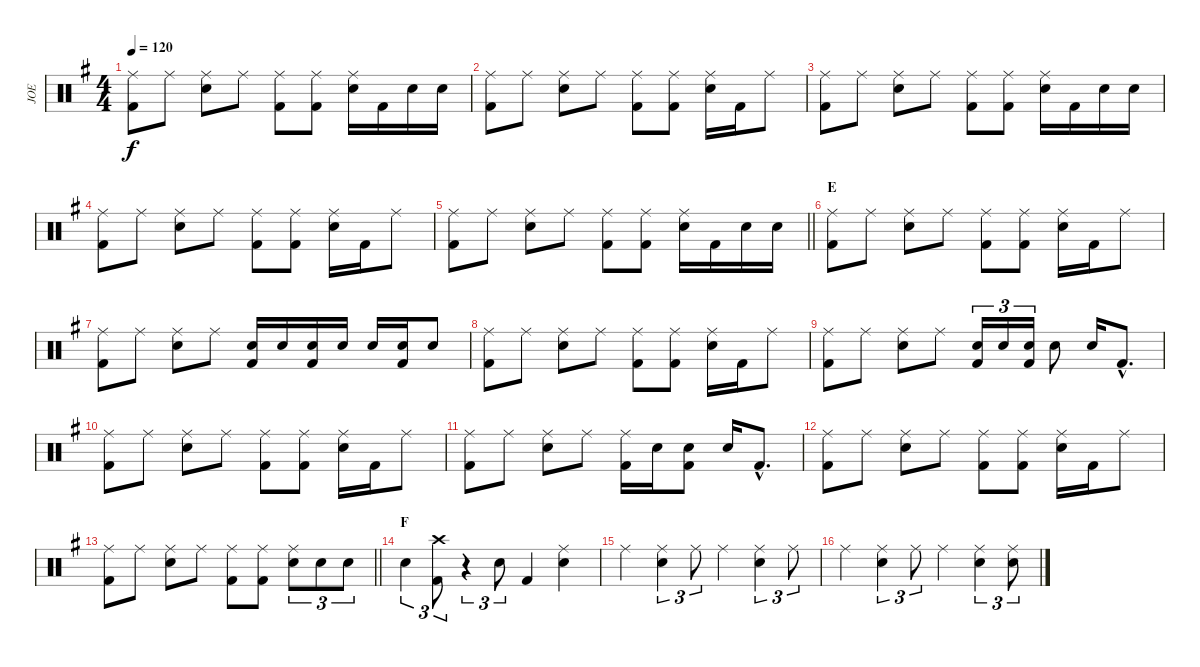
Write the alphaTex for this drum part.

\track ("JOE" "JOE") {instrument percussion}
\staff {score}
\articulation defaults
\ts (4 4)
\tempo 120
\clef neutral
\ks eminor
("Ride (middle)" "Kick (hit) 2").8{dy f} "Ride (middle)".8 ("Ride (middle)" "Snare (hit) 2").8 "Ride (middle)".8 ("Ride (middle)" "Kick (hit) 2").8 ("Ride (middle)" "Kick (hit) 2").8 ("Ride (middle)" "Snare (hit) 2").16 "Kick (hit) 2".16 "Snare (hit) 2".16 "Snare (hit) 2".16 |
("Ride (middle)" "Kick (hit) 2").8 "Ride (middle)".8 ("Ride (middle)" "Snare (hit) 2").8 "Ride (middle)".8 ("Ride (middle)" "Kick (hit) 2").8 ("Ride (middle)" "Kick (hit) 2").8 ("Ride (middle)" "Snare (hit) 2").16 "Kick (hit) 2".16 "Ride (middle)".8 |
("Ride (middle)" "Kick (hit) 2").8 "Ride (middle)".8 ("Ride (middle)" "Snare (hit) 2").8 "Ride (middle)".8 ("Ride (middle)" "Kick (hit) 2").8 ("Ride (middle)" "Kick (hit) 2").8 ("Ride (middle)" "Snare (hit) 2").16 "Kick (hit) 2".16 "Snare (hit) 2".16 "Snare (hit) 2".16 |
("Ride (middle)" "Kick (hit) 2").8 "Ride (middle)".8 ("Ride (middle)" "Snare (hit) 2").8 "Ride (middle)".8 ("Ride (middle)" "Kick (hit) 2").8 ("Ride (middle)" "Kick (hit) 2").8 ("Ride (middle)" "Snare (hit) 2").16 "Kick (hit) 2".16 "Ride (middle)".8 |
\barLineRight lightlight
("Ride (middle)" "Kick (hit) 2").8 "Ride (middle)".8 ("Ride (middle)" "Snare (hit) 2").8 "Ride (middle)".8 ("Ride (middle)" "Kick (hit) 2").8 ("Ride (middle)" "Kick (hit) 2").8 ("Ride (middle)" "Snare (hit) 2").16 "Kick (hit) 2".16 "Snare (hit) 2".16 "Snare (hit) 2".16 |
\section ("" "E")
("Ride (middle)" "Kick (hit) 2").8 "Ride (middle)".8 ("Ride (middle)" "Snare (hit) 2").8 "Ride (middle)".8 ("Ride (middle)" "Kick (hit) 2").8 ("Ride (middle)" "Kick (hit) 2").8 ("Ride (middle)" "Snare (hit) 2").16 "Kick (hit) 2".16 "Ride (middle)".8 |
("Ride (middle)" "Kick (hit) 2").8 "Ride (middle)".8 ("Ride (middle)" "Snare (hit) 2").8 "Ride (middle)".8 ("Snare (hit) 2" "Kick (hit) 2").16 "Snare (hit) 2".16 ("Snare (hit) 2" "Kick (hit) 2").16 "Snare (hit) 2".16 "Snare (hit) 2".16 ("Snare (hit) 2" "Kick (hit) 2").16 "Snare (hit) 2".8 |
("Ride (middle)" "Kick (hit) 2").8 "Ride (middle)".8 ("Ride (middle)" "Snare (hit) 2").8 "Ride (middle)".8 ("Ride (middle)" "Kick (hit) 2").8 ("Ride (middle)" "Kick (hit) 2").8 ("Ride (middle)" "Snare (hit) 2").16 "Kick (hit) 2".16 "Ride (middle)".8 |
("Ride (middle)" "Kick (hit) 2").8 "Ride (middle)".8 ("Ride (middle)" "Snare (hit) 2").8 "Ride (middle)".8 ("Snare (hit) 2" "Kick (hit) 2").16{tu (3 2)} "Snare (hit) 2".16{tu (3 2)} ("Snare (hit) 2" "Kick (hit) 2").16{tu (3 2)} "Snare (hit) 2".8 "Snare (hit) 2".16 "Kick (hit) 2"{hac}.8{d} |
("Ride (middle)" "Kick (hit) 2").8 "Ride (middle)".8 ("Ride (middle)" "Snare (hit) 2").8 "Ride (middle)".8 ("Ride (middle)" "Kick (hit) 2").8 ("Ride (middle)" "Kick (hit) 2").8 ("Ride (middle)" "Snare (hit) 2").16 "Kick (hit) 2".16 "Ride (middle)".8 |
("Ride (middle)" "Kick (hit) 2").8 "Ride (middle)".8 ("Ride (middle)" "Snare (hit) 2").8 "Ride (middle)".8 ("Ride (middle)" "Kick (hit) 2").16 "Snare (hit) 2".16 ("Kick (hit) 2" "Snare (hit) 2").8 "Snare (hit) 2".16 "Kick (hit) 2"{hac}.8{d} |
("Ride (middle)" "Kick (hit) 2").8 "Ride (middle)".8 ("Ride (middle)" "Snare (hit) 2").8 "Ride (middle)".8 ("Ride (middle)" "Kick (hit) 2").8 ("Ride (middle)" "Kick (hit) 2").8 ("Ride (middle)" "Snare (hit) 2").16 "Kick (hit) 2".16 "Ride (middle)".8 |
\barLineRight lightlight
("Ride (middle)" "Kick (hit) 2").8 "Ride (middle)".8 ("Ride (middle)" "Snare (hit) 2").8 "Ride (middle)".8 ("Ride (middle)" "Kick (hit) 2").8 ("Ride (middle)" "Kick (hit) 2").8 ("Ride (middle)" "Snare (hit) 2").8{tu (3 2)} "Snare (hit) 2".8{tu (3 2)} "Snare (hit) 2".8{tu (3 2)} |
\section ("" "F")
"Snare (hit) 2".4{tu (3 2)} ("Crash high (hit)" "Kick (hit) 2").8{tu (3 2)} r.4{tu (3 2)} "Snare (hit) 2".8{tu (3 2)} "Kick (hit) 2".4 ("Ride (middle)" "Snare (hit) 2").4 |
"Ride (middle)".4 ("Ride (middle)" "Snare (hit) 2").4{tu (3 2)} "Ride (middle)".8{tu (3 2)} "Ride (middle)".4 ("Ride (middle)" "Snare (hit) 2").4{tu (3 2)} "Ride (middle)".8{tu (3 2)} |
"Ride (middle)".4 ("Ride (middle)" "Snare (hit) 2").4{tu (3 2)} "Ride (middle)".8{tu (3 2)} "Ride (middle)".4 ("Ride (middle)" "Snare (hit) 2").4{tu (3 2)} ("Ride (middle)" "Snare (hit) 2").8{tu (3 2)}
